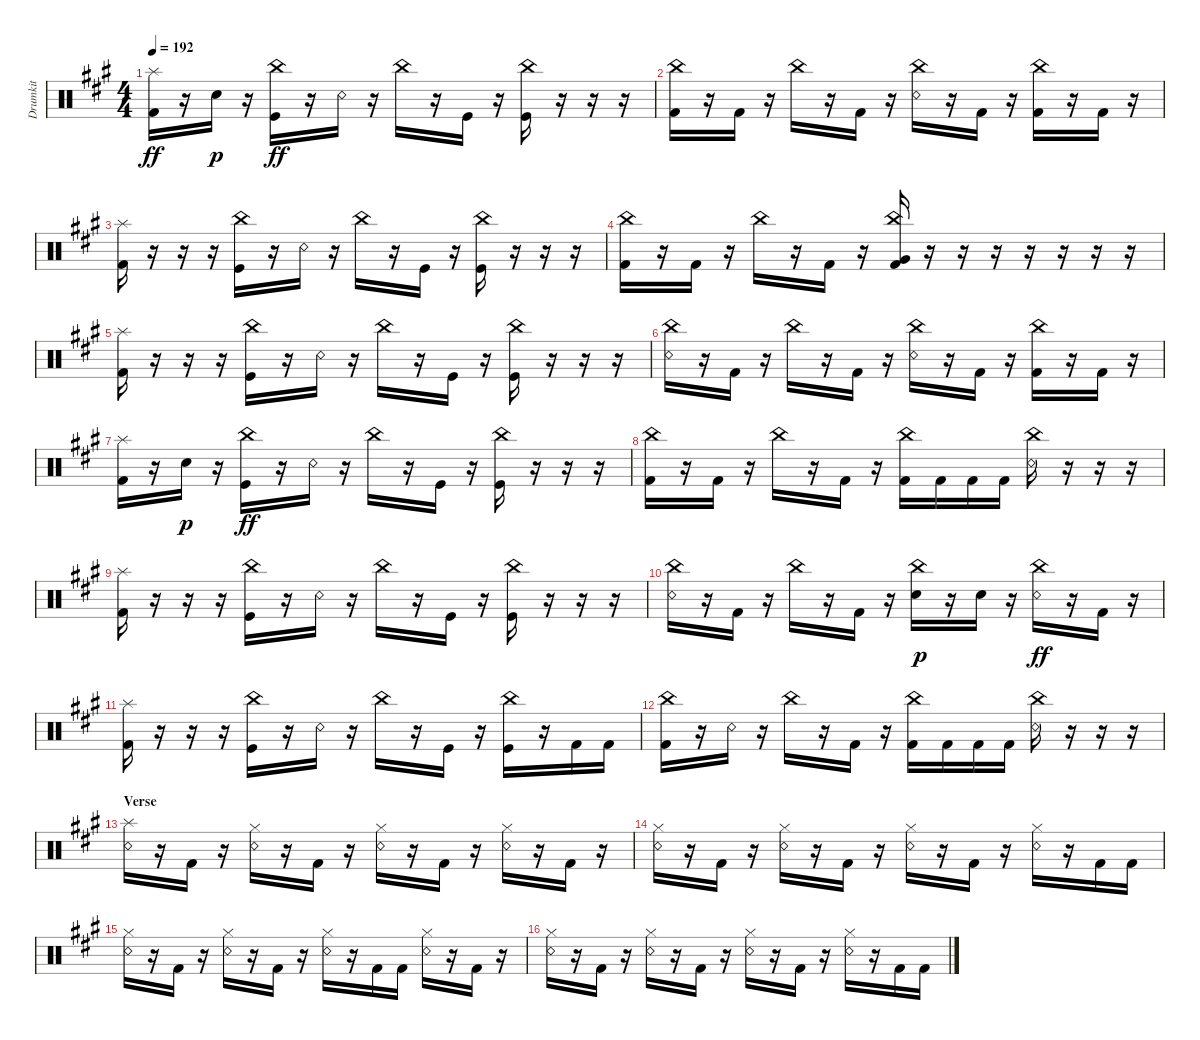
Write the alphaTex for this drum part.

\track ("Drumkit" "Drumkit") {instrument percussion}
\staff {score}
\articulation defaults
\ts (4 4)
\tempo 192
\clef neutral
\ks a
("Kick (hit) 2" "Splash (hit)").16{dy ff} r.16 "Snare (hit) 2".16{dy p} r.16 ("China (hit)" "Kick (hit)").16{dy ff} r.16 "Snare (rim shot)".16 r.16 "China (hit)".16 r.16 "Kick (hit)".16 r.16 ("China (hit)" "Kick (hit)").16 r.16 r.16 r.16 |
("Kick (hit) 2" "China (hit)").16 r.16 "Kick (hit) 2".16 r.16 "China (hit)".16 r.16 "Kick (hit) 2".16 r.16 ("Snare (rim shot)" "China (hit)").16 r.16 "Kick (hit) 2".16 r.16 ("Kick (hit) 2" "China (hit)").16 r.16 "Kick (hit) 2".16 r.16 |
("Kick (hit) 2" "Splash (hit)").16 r.16 r.16 r.16 ("China (hit)" "Kick (hit)").16 r.16 "Snare (rim shot)".16 r.16 "China (hit)".16 r.16 "Kick (hit)".16 r.16 ("China (hit)" "Kick (hit)").16 r.16 r.16 r.16 |
("Kick (hit) 2" "China (hit)").16 r.16 "Kick (hit) 2".16 r.16 "China (hit)".16 r.16 "Kick (hit) 2".16 r.16 ("China (hit)" "Kick (hit) 2" "Very Low Tom (hit)").16 r.16 r.16 r.16 r.16 r.16 r.16 r.16 |
("Kick (hit) 2" "Splash (hit)").16 r.16 r.16 r.16 ("China (hit)" "Kick (hit)").16 r.16 "Snare (rim shot)".16 r.16 "China (hit)".16 r.16 "Kick (hit)".16 r.16 ("China (hit)" "Kick (hit)").16 r.16 r.16 r.16 |
("China (hit)" "Snare (rim shot)").16 r.16 "Kick (hit) 2".16 r.16 "China (hit)".16 r.16 "Kick (hit) 2".16 r.16 ("Snare (rim shot)" "China (hit)").16 r.16 "Kick (hit) 2".16 r.16 ("Kick (hit) 2" "China (hit)").16 r.16 "Kick (hit) 2".16 r.16 |
("Kick (hit) 2" "Splash (hit)").16 r.16 "Snare (hit) 2".16{dy p} r.16 ("China (hit)" "Kick (hit)").16{dy ff} r.16 "Snare (rim shot)".16 r.16 "China (hit)".16 r.16 "Kick (hit)".16 r.16 ("China (hit)" "Kick (hit)").16 r.16 r.16 r.16 |
("Kick (hit) 2" "China (hit)").16 r.16 "Kick (hit) 2".16 r.16 "China (hit)".16 r.16 "Kick (hit) 2".16 r.16 ("China (hit)" "Kick (hit) 2").16 "Kick (hit) 2".16 "Kick (hit) 2".16 "Kick (hit) 2".16 ("China (hit)" "Snare (rim shot)").16 r.16 r.16 r.16 |
("Kick (hit) 2" "Splash (hit)").16 r.16 r.16 r.16 ("China (hit)" "Kick (hit)").16 r.16 "Snare (rim shot)".16 r.16 "China (hit)".16 r.16 "Kick (hit)".16 r.16 ("China (hit)" "Kick (hit)").16 r.16 r.16 r.16 |
("China (hit)" "Snare (rim shot)").16 r.16 "Kick (hit) 2".16 r.16 "China (hit)".16 r.16 "Kick (hit) 2".16 r.16 ("Snare (hit) 2" "China (hit)").16{dy p} r.16 "Snare (hit) 2".16 r.16 ("China (hit)" "Snare (rim shot)").16{dy ff} r.16 "Kick (hit) 2".16 r.16 |
("Kick (hit) 2" "Splash (hit)").16 r.16 r.16 r.16 ("China (hit)" "Kick (hit)").16 r.16 "Snare (rim shot)".16 r.16 "China (hit)".16 r.16 "Kick (hit)".16 r.16 ("China (hit)" "Kick (hit)").16 r.16 "Kick (hit) 2".16 "Kick (hit) 2".16 |
("China (hit)" "Kick (hit) 2").16 r.16 "Snare (rim shot)".16 r.16 "China (hit)".16 r.16 "Kick (hit) 2".16 r.16 ("China (hit)" "Kick (hit) 2").16 "Kick (hit) 2".16 "Kick (hit) 2".16 "Kick (hit) 2".16 ("China (hit)" "Snare (rim shot)").16 r.16 r.16 r.16 |
\section ("" "Verse")
("Snare (rim shot)" "Splash (hit)").16 r.16 "Kick (hit) 2".16 r.16 ("Snare (rim shot)" "Hi-Hat (closed)").16 r.16 "Kick (hit) 2".16 r.16 ("Snare (rim shot)" "Hi-Hat (closed)").16 r.16 "Kick (hit) 2".16 r.16 ("Snare (rim shot)" "Hi-Hat (closed)").16 r.16 "Kick (hit) 2".16 r.16 |
("Snare (rim shot)" "Hi-Hat (closed)").16 r.16 "Kick (hit) 2".16 r.16 ("Snare (rim shot)" "Hi-Hat (closed)").16 r.16 "Kick (hit) 2".16 r.16 ("Snare (rim shot)" "Hi-Hat (closed)").16 r.16 "Kick (hit) 2".16 r.16 ("Snare (rim shot)" "Hi-Hat (closed)").16 r.16 "Kick (hit) 2".16 "Kick (hit) 2".16 |
("Snare (rim shot)" "Hi-Hat (closed)").16 r.16 "Kick (hit) 2".16 r.16 ("Snare (rim shot)" "Hi-Hat (closed)").16 r.16 "Kick (hit) 2".16 r.16 ("Snare (rim shot)" "Hi-Hat (closed)").16 r.16 "Kick (hit) 2".16 "Kick (hit) 2".16 ("Snare (rim shot)" "Hi-Hat (closed)").16 r.16 "Kick (hit) 2".16 r.16 |
("Snare (rim shot)" "Hi-Hat (closed)").16 r.16 "Kick (hit) 2".16 r.16 ("Snare (rim shot)" "Hi-Hat (closed)").16 r.16 "Kick (hit) 2".16 r.16 ("Snare (rim shot)" "Hi-Hat (closed)").16 r.16 "Kick (hit) 2".16 r.16 ("Snare (rim shot)" "Hi-Hat (closed)").16 r.16 "Kick (hit) 2".16 "Kick (hit) 2".16
